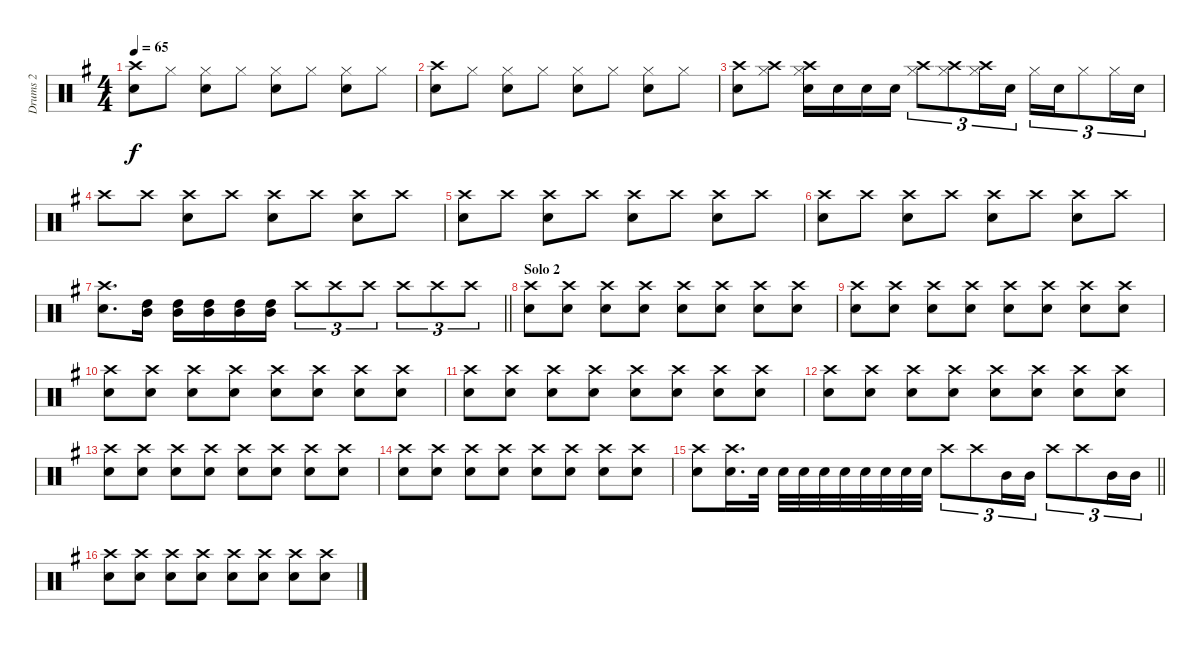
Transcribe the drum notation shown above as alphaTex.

\track ("Drums 2 " "Drums 2 ") {instrument percussion}
\staff {score}
\articulation defaults
\ts (4 4)
\tempo 65
\clef neutral
\ks g
("Crash high (hit)" "Snare (hit) 2").8{dy f} "Hi-Hat (closed)".8 ("Hi-Hat (closed)" "Snare (hit) 2").8 "Hi-Hat (closed)".8 ("Hi-Hat (closed)" "Snare (hit) 2").8 "Hi-Hat (closed)".8 ("Hi-Hat (closed)" "Snare (hit) 2").8 "Hi-Hat (closed)".8 |
("Crash high (hit)" "Snare (hit) 2").8 "Hi-Hat (closed)".8 ("Hi-Hat (closed)" "Snare (hit) 2").8 "Hi-Hat (closed)".8 ("Hi-Hat (closed)" "Snare (hit) 2").8 "Hi-Hat (closed)".8 ("Hi-Hat (closed)" "Snare (hit) 2").8 "Hi-Hat (closed)".8 |
("Crash high (hit)" "Snare (hit) 2").8 ("Crash high (hit)" "Hi-Hat (closed)").8 ("Crash high (hit)" "Hi-Hat (closed)" "Snare (hit) 2").16 "Snare (hit) 2".16 "Snare (hit) 2".16 "Snare (hit) 2".16 ("Crash high (hit)" "Hi-Hat (closed)").8{tu (3 2)} ("Crash high (hit)" "Hi-Hat (closed)").8{tu (3 2)} ("Crash high (hit)" "Hi-Hat (closed)").16{tu (3 2)} "Snare (hit) 2".16{tu (3 2)} "Hi-Hat (closed)".16{tu (3 2)} "Snare (hit) 2".16{tu (3 2)} "Hi-Hat (closed)".8{tu (3 2)} "Hi-Hat (closed)".16{tu (3 2)} "Snare (hit) 2".16{tu (3 2)} |
"Crash high (hit)".8 "Crash high (hit)".8 ("Crash high (hit)" "Snare (hit) 2").8 "Crash high (hit)".8 ("Crash high (hit)" "Snare (hit) 2").8 "Crash high (hit)".8 ("Crash high (hit)" "Snare (hit) 2").8 "Crash high (hit)".8 |
("Crash high (hit)" "Snare (hit) 2").8 "Crash high (hit)".8 ("Crash high (hit)" "Snare (hit) 2").8 "Crash high (hit)".8 ("Crash high (hit)" "Snare (hit) 2").8 "Crash high (hit)".8 ("Crash high (hit)" "Snare (hit) 2").8 "Crash high (hit)".8 |
("Crash high (hit)" "Snare (hit) 2").8 "Crash high (hit)".8 ("Crash high (hit)" "Snare (hit) 2").8 "Crash high (hit)".8 ("Crash high (hit)" "Snare (hit) 2").8 "Crash high (hit)".8 ("Crash high (hit)" "Snare (hit) 2").8 "Crash high (hit)".8 |
\barLineRight lightlight
("Crash high (hit)" "Snare (hit) 2").8{d} ("High Tom (hit)" "Mid Tom (hit)").16 ("High Tom (hit)" "Mid Tom (hit)").16 ("High Tom (hit)" "Mid Tom (hit)").16 ("High Tom (hit)" "Mid Tom (hit)").16 ("High Tom (hit)" "Mid Tom (hit)").16 "Crash high (hit)".8{tu (3 2)} "Crash high (hit)".8{tu (3 2)} "Crash high (hit)".8{tu (3 2)} "Crash high (hit)".8{tu (3 2)} "Crash high (hit)".8{tu (3 2)} "Crash high (hit)".8{tu (3 2)} |
\section ("" "Solo 2")
("Crash high (hit)" "Snare (hit) 2").8 ("Crash high (hit)" "Snare (hit) 2").8 ("Crash high (hit)" "Snare (hit) 2").8 ("Crash high (hit)" "Snare (hit) 2").8 ("Crash high (hit)" "Snare (hit) 2").8 ("Crash high (hit)" "Snare (hit) 2").8 ("Crash high (hit)" "Snare (hit) 2").8 ("Crash high (hit)" "Snare (hit) 2").8 |
("Crash high (hit)" "Snare (hit) 2").8 ("Crash high (hit)" "Snare (hit) 2").8 ("Crash high (hit)" "Snare (hit) 2").8 ("Crash high (hit)" "Snare (hit) 2").8 ("Crash high (hit)" "Snare (hit) 2").8 ("Crash high (hit)" "Snare (hit) 2").8 ("Crash high (hit)" "Snare (hit) 2").8 ("Crash high (hit)" "Snare (hit) 2").8 |
("Crash high (hit)" "Snare (hit) 2").8 ("Crash high (hit)" "Snare (hit) 2").8 ("Crash high (hit)" "Snare (hit) 2").8 ("Crash high (hit)" "Snare (hit) 2").8 ("Crash high (hit)" "Snare (hit) 2").8 ("Crash high (hit)" "Snare (hit) 2").8 ("Crash high (hit)" "Snare (hit) 2").8 ("Crash high (hit)" "Snare (hit) 2").8 |
("Crash high (hit)" "Snare (hit) 2").8 ("Crash high (hit)" "Snare (hit) 2").8 ("Crash high (hit)" "Snare (hit) 2").8 ("Crash high (hit)" "Snare (hit) 2").8 ("Crash high (hit)" "Snare (hit) 2").8 ("Crash high (hit)" "Snare (hit) 2").8 ("Crash high (hit)" "Snare (hit) 2").8 ("Crash high (hit)" "Snare (hit) 2").8 |
("Crash high (hit)" "Snare (hit) 2").8 ("Crash high (hit)" "Snare (hit) 2").8 ("Crash high (hit)" "Snare (hit) 2").8 ("Crash high (hit)" "Snare (hit) 2").8 ("Crash high (hit)" "Snare (hit) 2").8 ("Crash high (hit)" "Snare (hit) 2").8 ("Crash high (hit)" "Snare (hit) 2").8 ("Crash high (hit)" "Snare (hit) 2").8 |
("Crash high (hit)" "Snare (hit) 2").8 ("Crash high (hit)" "Snare (hit) 2").8 ("Crash high (hit)" "Snare (hit) 2").8 ("Crash high (hit)" "Snare (hit) 2").8 ("Crash high (hit)" "Snare (hit) 2").8 ("Crash high (hit)" "Snare (hit) 2").8 ("Crash high (hit)" "Snare (hit) 2").8 ("Crash high (hit)" "Snare (hit) 2").8 |
("Crash high (hit)" "Snare (hit) 2").8 ("Crash high (hit)" "Snare (hit) 2").8 ("Crash high (hit)" "Snare (hit) 2").8 ("Crash high (hit)" "Snare (hit) 2").8 ("Crash high (hit)" "Snare (hit) 2").8 ("Crash high (hit)" "Snare (hit) 2").8 ("Crash high (hit)" "Snare (hit) 2").8 ("Crash high (hit)" "Snare (hit) 2").8 |
\barLineRight lightlight
("Crash high (hit)" "Snare (hit) 2").8 ("Crash high (hit)" "Snare (hit) 2").16{d} "Snare (hit) 2".32 "Snare (hit) 2".32 "Snare (hit) 2".32 "Snare (hit) 2".32 "Snare (hit) 2".32 "Snare (hit) 2".32 "Snare (hit) 2".32 "Snare (hit) 2".32 "Snare (hit) 2".32 "Crash high (hit)".8{tu (3 2)} "Crash high (hit)".8{tu (3 2)} "Mid Tom (hit)".16{tu (3 2)} "Mid Tom (hit)".16{tu (3 2)} "Crash high (hit)".8{tu (3 2)} "Crash high (hit)".8{tu (3 2)} "Mid Tom (hit)".16{tu (3 2)} "Mid Tom (hit)".16{tu (3 2)} |
("Crash high (hit)" "Snare (hit) 2").8 ("Crash high (hit)" "Snare (hit) 2").8 ("Crash high (hit)" "Snare (hit) 2").8 ("Crash high (hit)" "Snare (hit) 2").8 ("Crash high (hit)" "Snare (hit) 2").8 ("Crash high (hit)" "Snare (hit) 2").8 ("Crash high (hit)" "Snare (hit) 2").8 ("Crash high (hit)" "Snare (hit) 2").8
